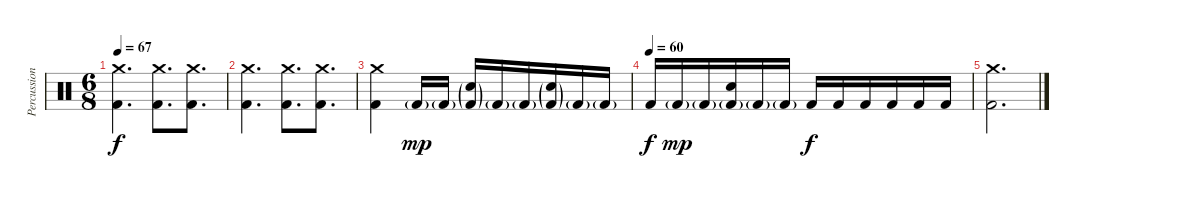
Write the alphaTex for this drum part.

\track ("Percussion" "Percussion") {instrument percussion}
\staff {score}
\articulation defaults
\ts (6 8)
\tempo 67
\clef neutral
\ks c
("Crash medium (hit)" "Kick (hit) 2").4{d dy f} ("Crash medium (hit)" "Kick (hit) 2").8{d} ("Crash medium (hit)" "Kick (hit) 2").8{d} |
("Crash medium (hit)" "Kick (hit) 2").4{d} ("Crash medium (hit)" "Kick (hit) 2").8{d} ("Crash medium (hit)" "Kick (hit) 2").8{d} |
("Crash medium (hit)" "Kick (hit) 2").4 "Kick (hit) 2"{g}.16{dy mp} "Kick (hit) 2"{g}.16 ("Electric Snare (hit)"{g} "Kick (hit) 2"{g}).16 "Kick (hit) 2"{g}.16 "Kick (hit) 2"{g}.16 ("Electric Snare (hit)"{g} "Kick (hit) 2"{g}).16 "Kick (hit) 2"{g}.16 "Kick (hit) 2"{g}.16 |
\tempo (60)
"Kick (hit) 2".16{dy f} "Kick (hit) 2"{g}.16{dy mp} "Kick (hit) 2"{g}.16 ("Electric Snare (hit)" "Kick (hit) 2"{g}).16 "Kick (hit) 2"{g}.16 "Kick (hit) 2"{g}.16 "Kick (hit) 2".16{dy f} "Kick (hit) 2".16 "Kick (hit) 2".16 "Kick (hit) 2".16 "Kick (hit) 2".16 "Kick (hit) 2".16 |
("Crash medium (hit)" "Kick (hit) 2").2{d}
